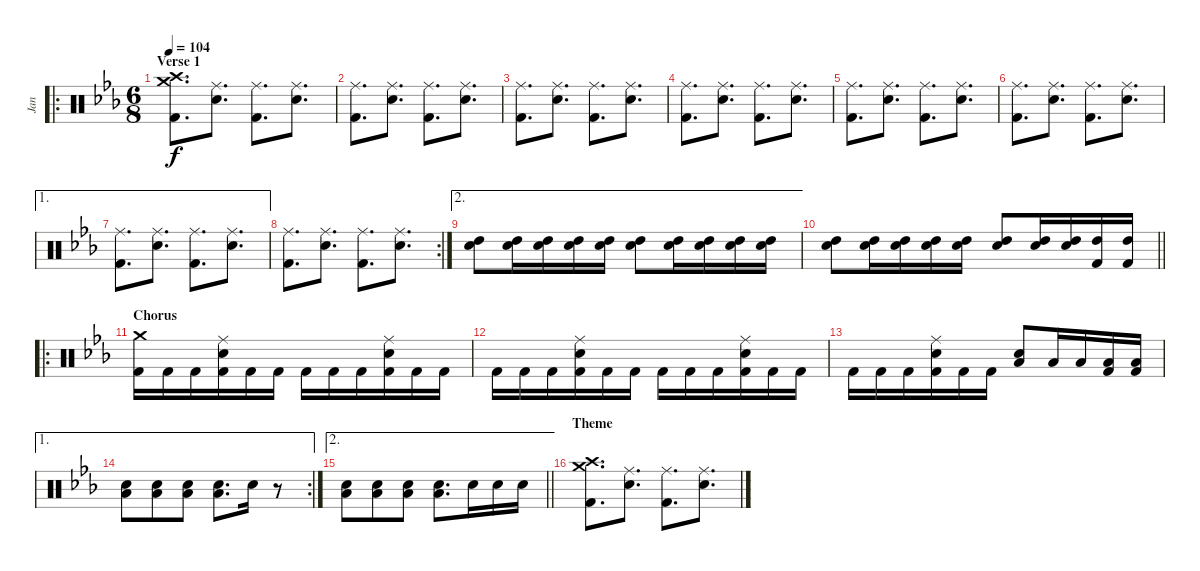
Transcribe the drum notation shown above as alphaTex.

\track ("Jan" "Jan") {instrument percussion}
\staff {score}
\articulation defaults
\ro
\ts (6 8)
\section ("" "Verse 1")
\tempo 104
\clef neutral
\ks eb
("Crash medium (hit)" "Crash high (hit)" "Kick (hit) 2").8{d dy f} ("Snare (hit) 2" "Ride (middle)").8{d} ("Ride (middle)" "Kick (hit) 2").8{d} ("Snare (hit) 2" "Ride (middle)").8{d} |
("Ride (middle)" "Kick (hit) 2").8{d} ("Snare (hit) 2" "Ride (middle)").8{d} ("Ride (middle)" "Kick (hit) 2").8{d} ("Snare (hit) 2" "Ride (middle)").8{d} |
("Ride (middle)" "Kick (hit) 2").8{d} ("Snare (hit) 2" "Ride (middle)").8{d} ("Ride (middle)" "Kick (hit) 2").8{d} ("Snare (hit) 2" "Ride (middle)").8{d} |
("Ride (middle)" "Kick (hit) 2").8{d} ("Snare (hit) 2" "Ride (middle)").8{d} ("Ride (middle)" "Kick (hit) 2").8{d} ("Snare (hit) 2" "Ride (middle)").8{d} |
("Ride (middle)" "Kick (hit) 2").8{d} ("Snare (hit) 2" "Ride (middle)").8{d} ("Ride (middle)" "Kick (hit) 2").8{d} ("Snare (hit) 2" "Ride (middle)").8{d} |
("Ride (middle)" "Kick (hit) 2").8{d} ("Snare (hit) 2" "Ride (middle)").8{d} ("Ride (middle)" "Kick (hit) 2").8{d} ("Snare (hit) 2" "Ride (middle)").8{d} |
\ae 1
("Ride (middle)" "Kick (hit) 2").8{d} ("Snare (hit) 2" "Ride (middle)").8{d} ("Ride (middle)" "Kick (hit) 2").8{d} ("Snare (hit) 2" "Ride (middle)").8{d} |
\rc 2
("Ride (middle)" "Kick (hit) 2").8{d} ("Snare (hit) 2" "Ride (middle)").8{d} ("Ride (middle)" "Kick (hit) 2").8{d} ("Snare (hit) 2" "Ride (middle)").8{d} |
\ae 2
("High Tom (hit)" "Snare (hit) 2").8 ("High Tom (hit)" "Snare (hit) 2").16 ("High Tom (hit)" "Snare (hit) 2").16 ("High Tom (hit)" "Snare (hit) 2").16 ("High Tom (hit)" "Snare (hit) 2").16 ("High Tom (hit)" "Snare (hit) 2").8 ("High Tom (hit)" "Snare (hit) 2").16 ("High Tom (hit)" "Snare (hit) 2").16 ("High Tom (hit)" "Snare (hit) 2").16 ("High Tom (hit)" "Snare (hit) 2").16 |
\barLineRight lightlight
("High Tom (hit)" "Snare (hit) 2").8 ("High Tom (hit)" "Snare (hit) 2").16 ("High Tom (hit)" "Snare (hit) 2").16 ("High Tom (hit)" "Snare (hit) 2").16 ("High Tom (hit)" "Snare (hit) 2").16 ("High Tom (hit)" "Snare (hit) 2").8 ("High Tom (hit)" "Snare (hit) 2").16 ("High Tom (hit)" "Snare (hit) 2").16 ("High Tom (hit)" "Kick (hit) 2").16 ("High Tom (hit)" "Kick (hit) 2").16 |
\ro
\section ("" "Chorus")
("Crash medium (hit)" "Kick (hit) 2").16 "Kick (hit) 2".16 "Kick (hit) 2".16 ("Ride (middle)" "Snare (hit) 2" "Kick (hit) 2").16 "Kick (hit) 2".16 "Kick (hit) 2".16 "Kick (hit) 2".16 "Kick (hit) 2".16 "Kick (hit) 2".16 ("Ride (middle)" "Snare (hit) 2" "Kick (hit) 2").16 "Kick (hit) 2".16 "Kick (hit) 2".16 |
"Kick (hit) 2".16 "Kick (hit) 2".16 "Kick (hit) 2".16 ("Ride (middle)" "Snare (hit) 2" "Kick (hit) 2").16 "Kick (hit) 2".16 "Kick (hit) 2".16 "Kick (hit) 2".16 "Kick (hit) 2".16 "Kick (hit) 2".16 ("Ride (middle)" "Snare (hit) 2" "Kick (hit) 2").16 "Kick (hit) 2".16 "Kick (hit) 2".16 |
"Kick (hit) 2".16 "Kick (hit) 2".16 "Kick (hit) 2".16 ("Ride (middle)" "Snare (hit) 2" "Kick (hit) 2").16 "Kick (hit) 2".16 "Kick (hit) 2".16 ("Low Tom (hit)" "Snare (hit) 2").8 "Low Tom (hit)".16 "Low Tom (hit)".16 ("Low Tom (hit)" "Kick (hit) 2").16 ("Low Tom (hit)" "Kick (hit) 2").16 |
\ae 1
\rc 2
("Low Tom (hit)" "Snare (hit) 2").8 ("Low Tom (hit)" "Snare (hit) 2").8 ("Low Tom (hit)" "Snare (hit) 2").8 ("Low Tom (hit)" "Snare (hit) 2").8{d} "Snare (hit) 2".16 r.8 |
\ae 2
\barLineRight lightlight
("Low Tom (hit)" "Snare (hit) 2").8 ("Low Tom (hit)" "Snare (hit) 2").8 ("Low Tom (hit)" "Snare (hit) 2").8 ("Low Tom (hit)" "Snare (hit) 2").8{d} "Snare (hit) 2".16 "Snare (hit) 2".16 "Snare (hit) 2".16 |
\section ("" "Theme")
("Crash medium (hit)" "Crash high (hit)" "Kick (hit) 2").8{d} ("Snare (hit) 2" "Ride (middle)").8{d} ("Ride (middle)" "Kick (hit) 2").8{d} ("Snare (hit) 2" "Ride (middle)").8{d}
